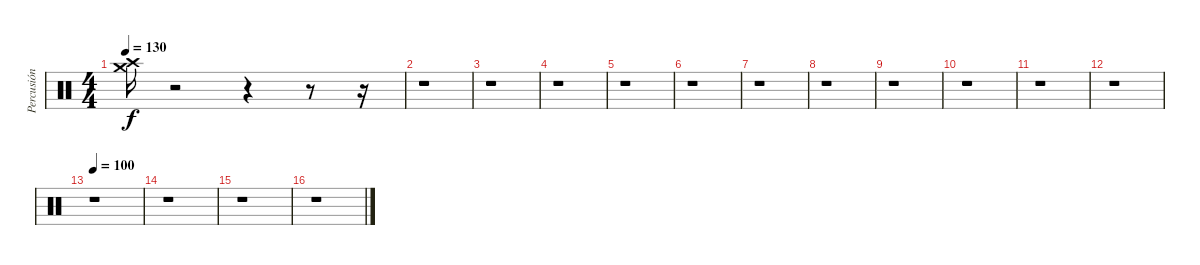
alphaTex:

\track ("Percusión" "Percusión") {instrument percussion}
\staff {score}
\articulation defaults
\ts (4 4)
\tempo 130
\clef neutral
\ks c
("Crash high (hit)" "Crash medium (hit)").16{dy f} r.2 r.4 r.8 r.16 |
r.1 |
r.1 |
r.1 |
r.1 |
r.1 |
r.1 |
r.1 |
r.1 |
r.1 |
r.1 |
r.1 |
\tempo 100
r.1 |
r.1 |
r.1 |
r.1
